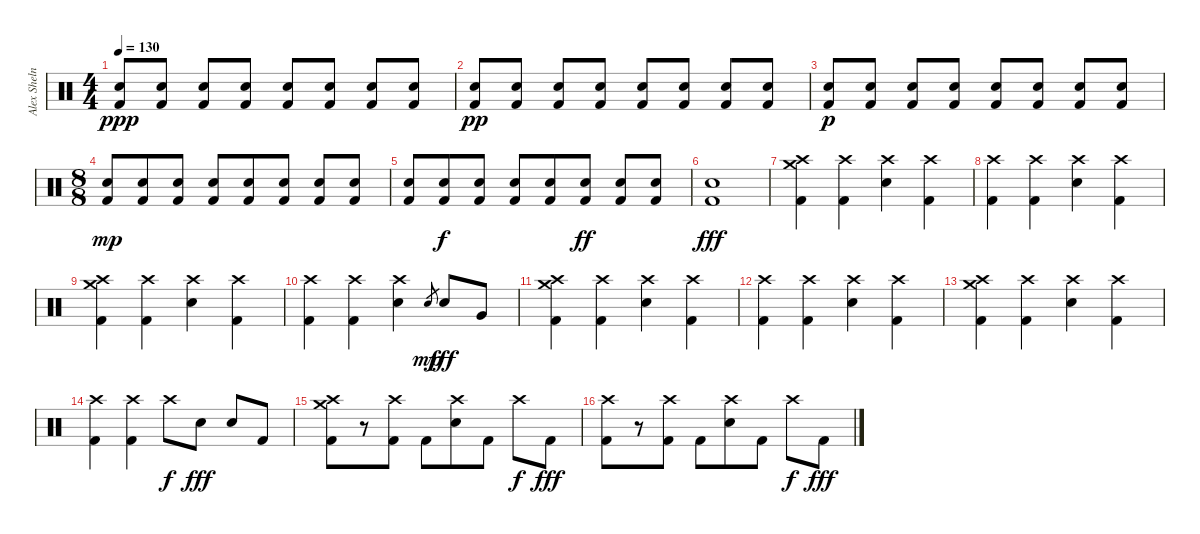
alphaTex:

\track ("Alex Shelnutt" "Alex Sheln") {instrument percussion}
\staff {score}
\articulation defaults
\ts (4 4)
\tempo 130
\clef neutral
\ks c
("Electric Snare (hit)" "Kick (hit) 2").8{dy ppp} ("Electric Snare (hit)" "Kick (hit) 2").8 ("Electric Snare (hit)" "Kick (hit) 2").8 ("Electric Snare (hit)" "Kick (hit) 2").8 ("Electric Snare (hit)" "Kick (hit) 2").8 ("Electric Snare (hit)" "Kick (hit) 2").8 ("Electric Snare (hit)" "Kick (hit) 2").8 ("Electric Snare (hit)" "Kick (hit) 2").8 |
("Electric Snare (hit)" "Kick (hit) 2").8{dy pp} ("Electric Snare (hit)" "Kick (hit) 2").8 ("Electric Snare (hit)" "Kick (hit) 2").8 ("Electric Snare (hit)" "Kick (hit) 2").8 ("Electric Snare (hit)" "Kick (hit) 2").8 ("Electric Snare (hit)" "Kick (hit) 2").8 ("Electric Snare (hit)" "Kick (hit) 2").8 ("Electric Snare (hit)" "Kick (hit) 2").8 |
("Electric Snare (hit)" "Kick (hit) 2").8{dy p} ("Electric Snare (hit)" "Kick (hit) 2").8 ("Electric Snare (hit)" "Kick (hit) 2").8 ("Electric Snare (hit)" "Kick (hit) 2").8 ("Electric Snare (hit)" "Kick (hit) 2").8 ("Electric Snare (hit)" "Kick (hit) 2").8 ("Electric Snare (hit)" "Kick (hit) 2").8 ("Electric Snare (hit)" "Kick (hit) 2").8 |
\ts (8 8)
("Electric Snare (hit)" "Kick (hit) 2").8{dy mp} ("Electric Snare (hit)" "Kick (hit) 2").8 ("Electric Snare (hit)" "Kick (hit) 2").8 ("Electric Snare (hit)" "Kick (hit) 2").8 ("Electric Snare (hit)" "Kick (hit) 2").8 ("Electric Snare (hit)" "Kick (hit) 2").8 ("Electric Snare (hit)" "Kick (hit) 2").8 ("Electric Snare (hit)" "Kick (hit) 2").8 |
("Electric Snare (hit)" "Kick (hit) 2").8 ("Electric Snare (hit)" "Kick (hit) 2").8{dy f} ("Electric Snare (hit)" "Kick (hit) 2").8 ("Electric Snare (hit)" "Kick (hit) 2").8 ("Electric Snare (hit)" "Kick (hit) 2").8 ("Electric Snare (hit)" "Kick (hit) 2").8{dy ff} ("Electric Snare (hit)" "Kick (hit) 2").8 ("Electric Snare (hit)" "Kick (hit) 2").8 |
("Electric Snare (hit)" "Kick (hit) 2").1{dy fff} |
("Crash high (hit)" "Crash medium (hit)" "Kick (hit) 2").4 ("Crash high (hit)" "Kick (hit) 2").4 ("Crash high (hit)" "Electric Snare (hit)").4 ("Crash high (hit)" "Kick (hit) 2").4 |
("Crash high (hit)" "Kick (hit) 2").4 ("Crash high (hit)" "Kick (hit) 2").4 ("Crash high (hit)" "Electric Snare (hit)").4 ("Crash high (hit)" "Kick (hit) 2").4 |
("Crash high (hit)" "Crash medium (hit)" "Kick (hit) 2").4 ("Crash high (hit)" "Kick (hit) 2").4 ("Crash high (hit)" "Electric Snare (hit)").4 ("Crash high (hit)" "Kick (hit) 2").4 |
("Crash high (hit)" "Kick (hit) 2").4 ("Crash high (hit)" "Kick (hit) 2").4 ("Crash high (hit)" "Electric Snare (hit)").4 "Electric Snare (hit)".8{gr dy mp} "Electric Snare (hit)".8{dy fff} "Very Low Tom (hit)".8 |
("Crash high (hit)" "Crash medium (hit)" "Kick (hit) 2").4 ("Crash high (hit)" "Kick (hit) 2").4 ("Crash high (hit)" "Electric Snare (hit)").4 ("Crash high (hit)" "Kick (hit) 2").4 |
("Crash high (hit)" "Kick (hit) 2").4 ("Crash high (hit)" "Kick (hit) 2").4 ("Crash high (hit)" "Electric Snare (hit)").4 ("Crash high (hit)" "Kick (hit) 2").4 |
("Crash high (hit)" "Crash medium (hit)" "Kick (hit) 2").4 ("Crash high (hit)" "Kick (hit) 2").4 ("Crash high (hit)" "Electric Snare (hit)").4 ("Crash high (hit)" "Kick (hit) 2").4 |
("Crash high (hit)" "Kick (hit) 2").4 ("Crash high (hit)" "Kick (hit) 2").4 "Crash high (hit)".8{dy f} "Electric Snare (hit)".8{dy fff} "Electric Snare (hit)".8 "Kick (hit) 2".8 |
("Crash high (hit)" "Crash medium (hit)" "Kick (hit) 2").8 r.8 ("Crash high (hit)" "Kick (hit) 2").8 "Kick (hit) 2".8 ("Crash high (hit)" "Electric Snare (hit)").8 "Kick (hit) 2".8 "Crash high (hit)".8{dy f} "Kick (hit) 2".8{dy fff} |
("Crash high (hit)" "Kick (hit) 2").8 r.8 ("Crash high (hit)" "Kick (hit) 2").8 "Kick (hit) 2".8 ("Crash high (hit)" "Electric Snare (hit)").8 "Kick (hit) 2".8 "Crash high (hit)".8{dy f} "Kick (hit) 2".8{dy fff}
